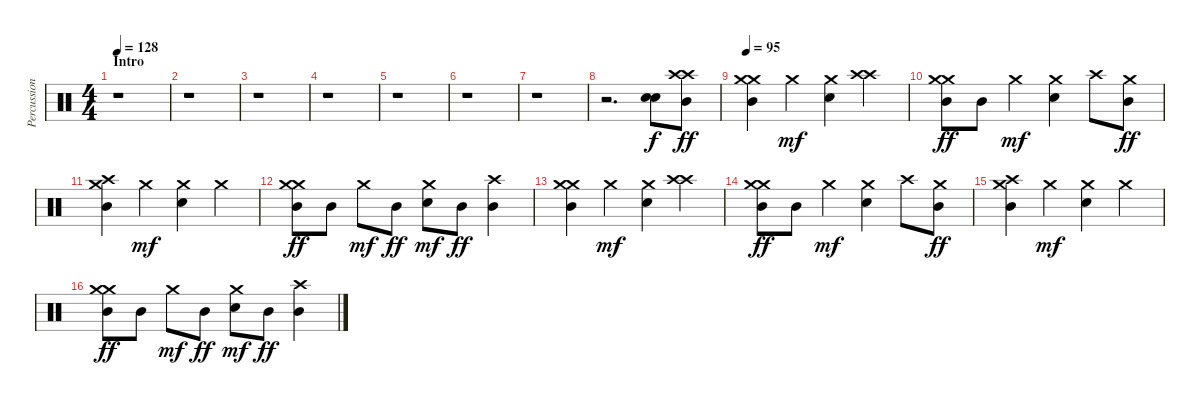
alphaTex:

\track ("Percussion" "Percussion") {instrument percussion}
\staff {score}
\articulation defaults
\ts (4 4)
\section ("" "Intro")
\tempo 128
\tempo 100
\tempo 128
\clef neutral
\ks c
r.1{dy f volume 13} |
r.1 |
r.1 |
r.1 |
r.1 |
r.1 |
r.1 |
r.2{d} ("Electric Snare (hit)" "Snare (hit) 2").8{bd 120} ("Crash high (hit)" "Crash high (hit)" "Mid Tom (hit)").8{dy ff} |
\tempo 95
("Crash medium (hit)" "Crash medium (hit)" "Mid Tom (hit)").4 "Crash medium (hit)".4{dy mf} ("Crash medium (hit)" "Electric Snare (hit)").4 ("Crash high (hit)" "Crash high (hit)").4 |
("Crash medium (hit)" "Crash medium (hit)" "Mid Tom (hit)").8{dy ff} "Mid Tom (hit)".8 "Crash medium (hit)".4{dy mf} ("Crash medium (hit)" "Electric Snare (hit)").4 "Crash high (hit)".8 ("Crash medium (hit)" "Mid Tom (hit)").8{dy ff} |
("Crash high (hit)" "Crash medium (hit)" "Mid Tom (hit)").4 "Crash medium (hit)".4{dy mf} ("Crash medium (hit)" "Electric Snare (hit)").4 "Crash medium (hit)".4 |
("Crash medium (hit)" "Crash medium (hit)" "Mid Tom (hit)").8{dy ff} "Mid Tom (hit)".8 "Crash medium (hit)".8{dy mf} "Mid Tom (hit)".8{dy ff} ("Crash medium (hit)" "Electric Snare (hit)").8{dy mf} "Mid Tom (hit)".8{dy ff} ("Crash high (hit)" "Mid Tom (hit)").4 |
("Crash medium (hit)" "Crash medium (hit)" "Mid Tom (hit)").4 "Crash medium (hit)".4{dy mf} ("Crash medium (hit)" "Electric Snare (hit)").4 ("Crash high (hit)" "Crash high (hit)").4 |
("Crash medium (hit)" "Crash medium (hit)" "Mid Tom (hit)").8{dy ff} "Mid Tom (hit)".8 "Crash medium (hit)".4{dy mf} ("Crash medium (hit)" "Electric Snare (hit)").4 "Crash high (hit)".8 ("Crash medium (hit)" "Mid Tom (hit)").8{dy ff} |
("Crash high (hit)" "Crash medium (hit)" "Mid Tom (hit)").4 "Crash medium (hit)".4{dy mf} ("Crash medium (hit)" "Electric Snare (hit)").4 "Crash medium (hit)".4 |
("Crash medium (hit)" "Crash medium (hit)" "Mid Tom (hit)").8{dy ff} "Mid Tom (hit)".8 "Crash medium (hit)".8{dy mf} "Mid Tom (hit)".8{dy ff} ("Crash medium (hit)" "Electric Snare (hit)").8{dy mf} "Mid Tom (hit)".8{dy ff} ("Crash high (hit)" "Mid Tom (hit)").4
